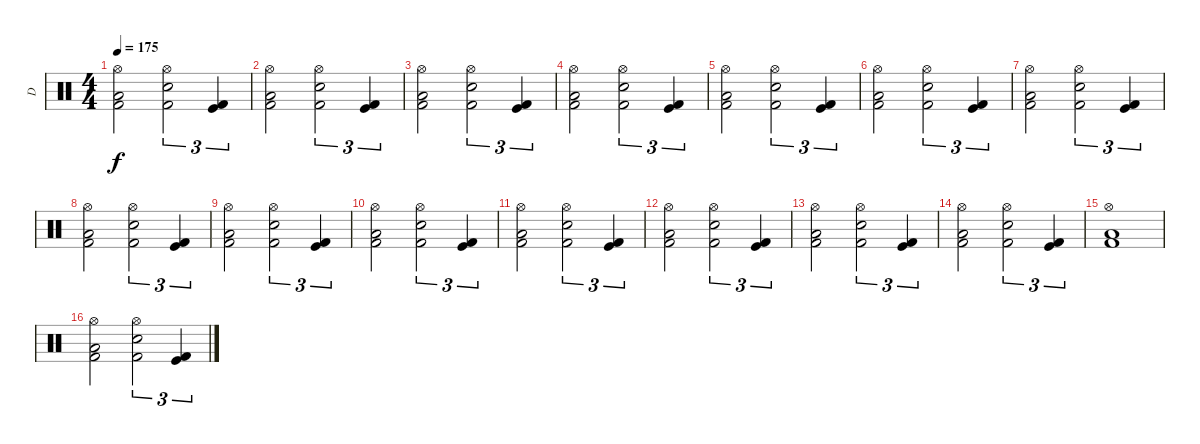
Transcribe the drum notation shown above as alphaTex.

\track ("D" "D") {instrument percussion}
\staff {score}
\articulation defaults
\ts (4 4)
\tempo 175
\clef neutral
\ks c
("Hi-Hat (open)" "Low Floor Tom (hit)" "Kick (hit) 2").2{dy f} ("Hi-Hat (open)" "Electric Snare (hit)" "Kick (hit) 2").2{tu (3 2)} ("Kick (hit)" "Kick (hit) 2").4{tu (3 2)} |
("Hi-Hat (open)" "Low Floor Tom (hit)" "Kick (hit) 2").2 ("Hi-Hat (open)" "Electric Snare (hit)" "Kick (hit) 2").2{tu (3 2)} ("Kick (hit)" "Kick (hit) 2").4{tu (3 2)} |
("Hi-Hat (open)" "Low Floor Tom (hit)" "Kick (hit) 2").2 ("Hi-Hat (open)" "Electric Snare (hit)" "Kick (hit) 2").2{tu (3 2)} ("Kick (hit)" "Kick (hit) 2").4{tu (3 2)} |
("Hi-Hat (open)" "Low Floor Tom (hit)" "Kick (hit) 2").2 ("Hi-Hat (open)" "Electric Snare (hit)" "Kick (hit) 2").2{tu (3 2)} ("Kick (hit)" "Kick (hit) 2").4{tu (3 2)} |
("Hi-Hat (open)" "Low Floor Tom (hit)" "Kick (hit) 2").2 ("Hi-Hat (open)" "Electric Snare (hit)" "Kick (hit) 2").2{tu (3 2)} ("Kick (hit)" "Kick (hit) 2").4{tu (3 2)} |
("Hi-Hat (open)" "Low Floor Tom (hit)" "Kick (hit) 2").2 ("Hi-Hat (open)" "Electric Snare (hit)" "Kick (hit) 2").2{tu (3 2)} ("Kick (hit)" "Kick (hit) 2").4{tu (3 2)} |
("Hi-Hat (open)" "Low Floor Tom (hit)" "Kick (hit) 2").2 ("Hi-Hat (open)" "Electric Snare (hit)" "Kick (hit) 2").2{tu (3 2)} ("Kick (hit)" "Kick (hit) 2").4{tu (3 2)} |
("Hi-Hat (open)" "Low Floor Tom (hit)" "Kick (hit) 2").2 ("Hi-Hat (open)" "Electric Snare (hit)" "Kick (hit) 2").2{tu (3 2)} ("Kick (hit)" "Kick (hit) 2").4{tu (3 2)} |
("Hi-Hat (open)" "Low Floor Tom (hit)" "Kick (hit) 2").2 ("Hi-Hat (open)" "Electric Snare (hit)" "Kick (hit) 2").2{tu (3 2)} ("Kick (hit)" "Kick (hit) 2").4{tu (3 2)} |
("Hi-Hat (open)" "Low Floor Tom (hit)" "Kick (hit) 2").2 ("Hi-Hat (open)" "Electric Snare (hit)" "Kick (hit) 2").2{tu (3 2)} ("Kick (hit)" "Kick (hit) 2").4{tu (3 2)} |
("Hi-Hat (open)" "Low Floor Tom (hit)" "Kick (hit) 2").2 ("Hi-Hat (open)" "Electric Snare (hit)" "Kick (hit) 2").2{tu (3 2)} ("Kick (hit)" "Kick (hit) 2").4{tu (3 2)} |
("Hi-Hat (open)" "Low Floor Tom (hit)" "Kick (hit) 2").2 ("Hi-Hat (open)" "Electric Snare (hit)" "Kick (hit) 2").2{tu (3 2)} ("Kick (hit)" "Kick (hit) 2").4{tu (3 2)} |
("Hi-Hat (open)" "Low Floor Tom (hit)" "Kick (hit) 2").2 ("Hi-Hat (open)" "Electric Snare (hit)" "Kick (hit) 2").2{tu (3 2)} ("Kick (hit)" "Kick (hit) 2").4{tu (3 2)} |
("Hi-Hat (open)" "Low Floor Tom (hit)" "Kick (hit) 2").2 ("Hi-Hat (open)" "Electric Snare (hit)" "Kick (hit) 2").2{tu (3 2)} ("Kick (hit)" "Kick (hit) 2").4{tu (3 2)} |
("Hi-Hat (open)" "Low Floor Tom (hit)" "Kick (hit) 2").1 |
("Hi-Hat (open)" "Low Floor Tom (hit)" "Kick (hit) 2").2 ("Hi-Hat (open)" "Electric Snare (hit)" "Kick (hit) 2").2{tu (3 2)} ("Kick (hit)" "Kick (hit) 2").4{tu (3 2)}
